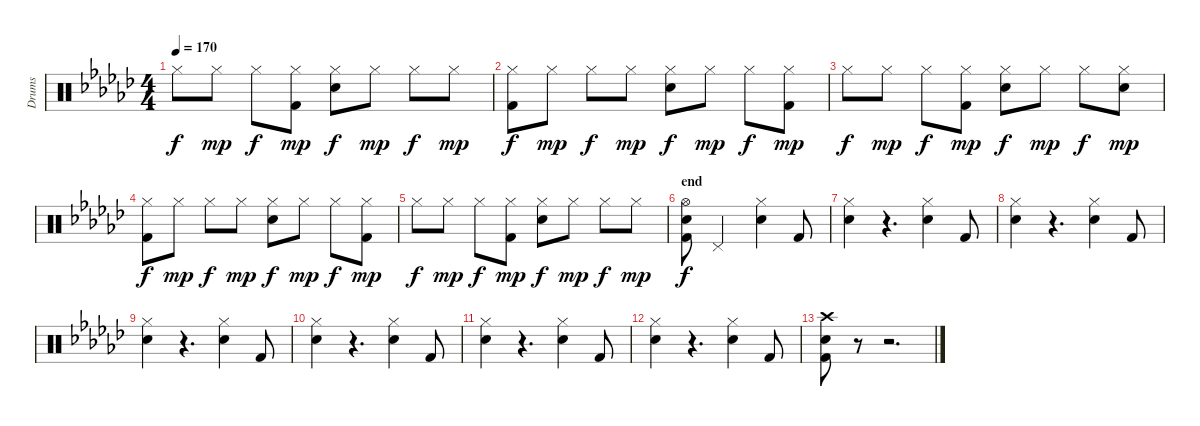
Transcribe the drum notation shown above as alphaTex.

\track ("Drums" "Drums") {instrument percussion}
\staff {score}
\articulation defaults
\ts (4 4)
\tempo 170
\clef neutral
\ks ebminor "Hi-Hat (closed)".8{dy f} "Hi-Hat (closed)".8{dy mp} "Hi-Hat (closed)".8{dy f}
("Hi-Hat (closed)" "Kick (hit) 2").8{dy mp} ("Hi-Hat (closed)" "Snare (hit) 2").8{dy f} "Hi-Hat (closed)".8{dy mp} "Hi-Hat (closed)".8{dy f} "Hi-Hat (closed)".8{dy mp} |
("Hi-Hat (closed)" "Kick (hit) 2").8{dy f} "Hi-Hat (closed)".8{dy mp} "Hi-Hat (closed)".8{dy f} "Hi-Hat (closed)".8{dy mp} ("Hi-Hat (closed)" "Snare (hit) 2").8{dy f} "Hi-Hat (closed)".8{dy mp} "Hi-Hat (closed)".8{dy f} ("Hi-Hat (closed)" "Kick (hit) 2").8{dy mp} |
"Hi-Hat (closed)".8{dy f} "Hi-Hat (closed)".8{dy mp} "Hi-Hat (closed)".8{dy f} ("Hi-Hat (closed)" "Kick (hit) 2").8{dy mp} ("Hi-Hat (closed)" "Snare (hit) 2").8{dy f} "Hi-Hat (closed)".8{dy mp} "Hi-Hat (closed)".8{dy f} ("Hi-Hat (closed)" "Snare (hit) 2").8{dy mp} |
("Hi-Hat (closed)" "Kick (hit) 2").8{dy f} "Hi-Hat (closed)".8{dy mp} "Hi-Hat (closed)".8{dy f} "Hi-Hat (closed)".8{dy mp} ("Hi-Hat (closed)" "Snare (hit) 2").8{dy f} "Hi-Hat (closed)".8{dy mp} "Hi-Hat (closed)".8{dy f} ("Hi-Hat (closed)" "Kick (hit) 2").8{dy mp} |
"Hi-Hat (closed)".8{dy f} "Hi-Hat (closed)".8{dy mp} "Hi-Hat (closed)".8{dy f} ("Hi-Hat (closed)" "Kick (hit) 2").8{dy mp} ("Hi-Hat (closed)" "Snare (hit) 2").8{dy f} "Hi-Hat (closed)".8{dy mp} "Hi-Hat (closed)".8{dy f} "Hi-Hat (closed)".8{dy mp} |
\section ("" "end")
("Hi-Hat (open)" "Snare (hit) 2" "Kick (hit) 2").8{dy f} "Pedal Hi-Hat (hit)".2 ("Hi-Hat (closed)" "Snare (hit) 2").4 "Kick (hit) 2".8 |
("Hi-Hat (closed)" "Snare (hit) 2").4 r.4{d} ("Hi-Hat (closed)" "Snare (hit) 2").4 "Kick (hit) 2".8 |
("Hi-Hat (closed)" "Snare (hit) 2").4 r.4{d} ("Hi-Hat (closed)" "Snare (hit) 2").4 "Kick (hit) 2".8 |
("Hi-Hat (closed)" "Snare (hit) 2").4 r.4{d} ("Hi-Hat (closed)" "Snare (hit) 2").4 "Kick (hit) 2".8 |
("Hi-Hat (closed)" "Snare (hit) 2").4 r.4{d} ("Hi-Hat (closed)" "Snare (hit) 2").4 "Kick (hit) 2".8 |
("Hi-Hat (closed)" "Snare (hit) 2").4 r.4{d} ("Hi-Hat (closed)" "Snare (hit) 2").4 "Kick (hit) 2".8 |
("Hi-Hat (closed)" "Snare (hit) 2").4 r.4{d} ("Hi-Hat (closed)" "Snare (hit) 2").4 "Kick (hit) 2".8 |
("Crash high (hit)" "Snare (hit) 2" "Kick (hit) 2").8 r.8 r.2{d}
